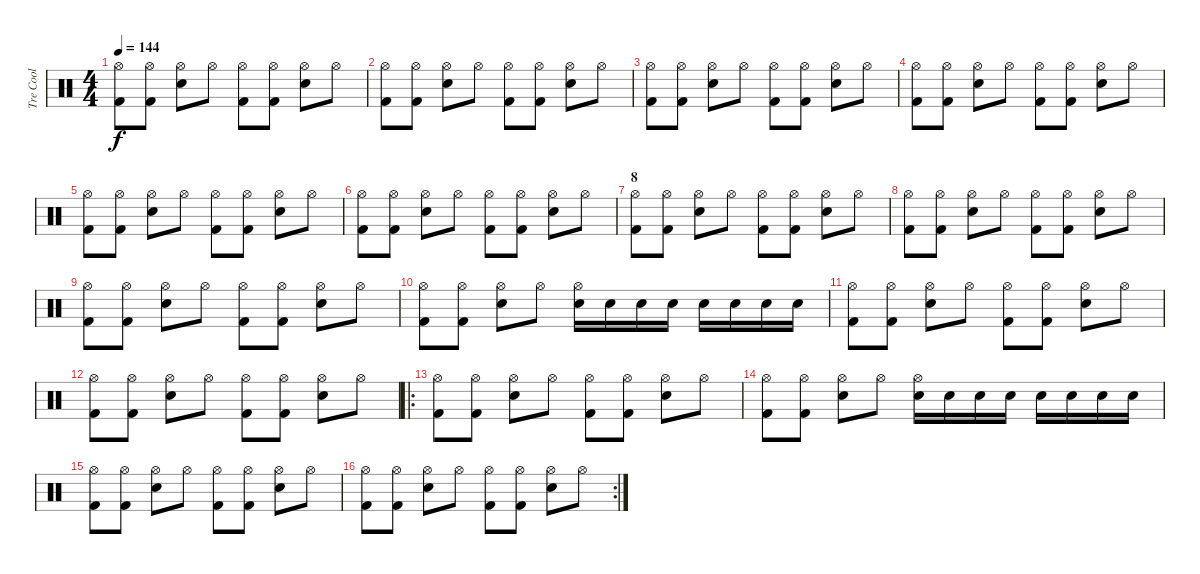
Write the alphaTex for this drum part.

\track ("Tre Cool" "Tre Cool") {instrument percussion}
\staff {score}
\articulation defaults
\ts (4 4)
\tempo 144
\clef neutral
\ks c
("Hi-Hat (open)" "Kick (hit) 2").8{dy f} ("Hi-Hat (open)" "Kick (hit) 2").8 ("Hi-Hat (open)" "Electric Snare (hit)").8 "Hi-Hat (open)".8 ("Hi-Hat (open)" "Kick (hit) 2").8 ("Hi-Hat (open)" "Kick (hit) 2").8 ("Hi-Hat (open)" "Electric Snare (hit)").8 "Hi-Hat (open)".8 |
("Hi-Hat (open)" "Kick (hit) 2").8 ("Hi-Hat (open)" "Kick (hit) 2").8 ("Hi-Hat (open)" "Electric Snare (hit)").8 "Hi-Hat (open)".8 ("Hi-Hat (open)" "Kick (hit) 2").8 ("Hi-Hat (open)" "Kick (hit) 2").8 ("Hi-Hat (open)" "Electric Snare (hit)").8 "Hi-Hat (open)".8 |
("Hi-Hat (open)" "Kick (hit) 2").8 ("Hi-Hat (open)" "Kick (hit) 2").8 ("Hi-Hat (open)" "Electric Snare (hit)").8 "Hi-Hat (open)".8 ("Hi-Hat (open)" "Kick (hit) 2").8 ("Hi-Hat (open)" "Kick (hit) 2").8 ("Hi-Hat (open)" "Electric Snare (hit)").8 "Hi-Hat (open)".8 |
("Hi-Hat (open)" "Kick (hit) 2").8 ("Hi-Hat (open)" "Kick (hit) 2").8 ("Hi-Hat (open)" "Electric Snare (hit)").8 "Hi-Hat (open)".8 ("Hi-Hat (open)" "Kick (hit) 2").8 ("Hi-Hat (open)" "Kick (hit) 2").8 ("Hi-Hat (open)" "Electric Snare (hit)").8 "Hi-Hat (open)".8 |
("Hi-Hat (open)" "Kick (hit) 2").8 ("Hi-Hat (open)" "Kick (hit) 2").8 ("Hi-Hat (open)" "Electric Snare (hit)").8 "Hi-Hat (open)".8 ("Hi-Hat (open)" "Kick (hit) 2").8 ("Hi-Hat (open)" "Kick (hit) 2").8 ("Hi-Hat (open)" "Electric Snare (hit)").8 "Hi-Hat (open)".8 |
("Hi-Hat (open)" "Kick (hit) 2").8 ("Hi-Hat (open)" "Kick (hit) 2").8 ("Hi-Hat (open)" "Electric Snare (hit)").8 "Hi-Hat (open)".8 ("Hi-Hat (open)" "Kick (hit) 2").8 ("Hi-Hat (open)" "Kick (hit) 2").8 ("Hi-Hat (open)" "Electric Snare (hit)").8 "Hi-Hat (open)".8 |
\section ("" "8")
("Hi-Hat (open)" "Kick (hit) 2").8 ("Hi-Hat (open)" "Kick (hit) 2").8 ("Hi-Hat (open)" "Electric Snare (hit)").8 "Hi-Hat (open)".8 ("Hi-Hat (open)" "Kick (hit) 2").8 ("Hi-Hat (open)" "Kick (hit) 2").8 ("Hi-Hat (open)" "Electric Snare (hit)").8 "Hi-Hat (open)".8 |
("Hi-Hat (open)" "Kick (hit) 2").8 ("Hi-Hat (open)" "Kick (hit) 2").8 ("Hi-Hat (open)" "Electric Snare (hit)").8 "Hi-Hat (open)".8 ("Hi-Hat (open)" "Kick (hit) 2").8 ("Hi-Hat (open)" "Kick (hit) 2").8 ("Hi-Hat (open)" "Electric Snare (hit)").8 "Hi-Hat (open)".8 |
("Hi-Hat (open)" "Kick (hit) 2").8 ("Hi-Hat (open)" "Kick (hit) 2").8 ("Hi-Hat (open)" "Electric Snare (hit)").8 "Hi-Hat (open)".8 ("Hi-Hat (open)" "Kick (hit) 2").8 ("Hi-Hat (open)" "Kick (hit) 2").8 ("Hi-Hat (open)" "Electric Snare (hit)").8 "Hi-Hat (open)".8 |
("Hi-Hat (open)" "Kick (hit) 2").8 ("Hi-Hat (open)" "Kick (hit) 2").8 ("Hi-Hat (open)" "Electric Snare (hit)").8 "Hi-Hat (open)".8 ("Hi-Hat (open)" "Electric Snare (hit)").16 "Electric Snare (hit)".16 "Electric Snare (hit)".16 "Electric Snare (hit)".16 "Electric Snare (hit)".16 "Electric Snare (hit)".16 "Electric Snare (hit)".16 "Electric Snare (hit)".16 |
("Hi-Hat (open)" "Kick (hit) 2").8 ("Hi-Hat (open)" "Kick (hit) 2").8 ("Hi-Hat (open)" "Electric Snare (hit)").8 "Hi-Hat (open)".8 ("Hi-Hat (open)" "Kick (hit) 2").8 ("Hi-Hat (open)" "Kick (hit) 2").8 ("Hi-Hat (open)" "Electric Snare (hit)").8 "Hi-Hat (open)".8 |
("Hi-Hat (open)" "Kick (hit) 2").8 ("Hi-Hat (open)" "Kick (hit) 2").8 ("Hi-Hat (open)" "Electric Snare (hit)").8 "Hi-Hat (open)".8 ("Hi-Hat (open)" "Kick (hit) 2").8 ("Hi-Hat (open)" "Kick (hit) 2").8 ("Hi-Hat (open)" "Electric Snare (hit)").8 "Hi-Hat (open)".8 |
\ro
("Hi-Hat (open)" "Kick (hit) 2").8 ("Hi-Hat (open)" "Kick (hit) 2").8 ("Hi-Hat (open)" "Electric Snare (hit)").8 "Hi-Hat (open)".8 ("Hi-Hat (open)" "Kick (hit) 2").8 ("Hi-Hat (open)" "Kick (hit) 2").8 ("Hi-Hat (open)" "Electric Snare (hit)").8 "Hi-Hat (open)".8 |
("Hi-Hat (open)" "Kick (hit) 2").8 ("Hi-Hat (open)" "Kick (hit) 2").8 ("Hi-Hat (open)" "Electric Snare (hit)").8 "Hi-Hat (open)".8 ("Hi-Hat (open)" "Electric Snare (hit)").16 "Electric Snare (hit)".16 "Electric Snare (hit)".16 "Electric Snare (hit)".16 "Electric Snare (hit)".16 "Electric Snare (hit)".16 "Electric Snare (hit)".16 "Electric Snare (hit)".16 |
("Hi-Hat (open)" "Kick (hit) 2").8 ("Hi-Hat (open)" "Kick (hit) 2").8 ("Hi-Hat (open)" "Electric Snare (hit)").8 "Hi-Hat (open)".8 ("Hi-Hat (open)" "Kick (hit) 2").8 ("Hi-Hat (open)" "Kick (hit) 2").8 ("Hi-Hat (open)" "Electric Snare (hit)").8 "Hi-Hat (open)".8 |
\rc 2
("Hi-Hat (open)" "Kick (hit) 2").8 ("Hi-Hat (open)" "Kick (hit) 2").8 ("Hi-Hat (open)" "Electric Snare (hit)").8 "Hi-Hat (open)".8 ("Hi-Hat (open)" "Kick (hit) 2").8 ("Hi-Hat (open)" "Kick (hit) 2").8 ("Hi-Hat (open)" "Electric Snare (hit)").8 "Hi-Hat (open)".8
